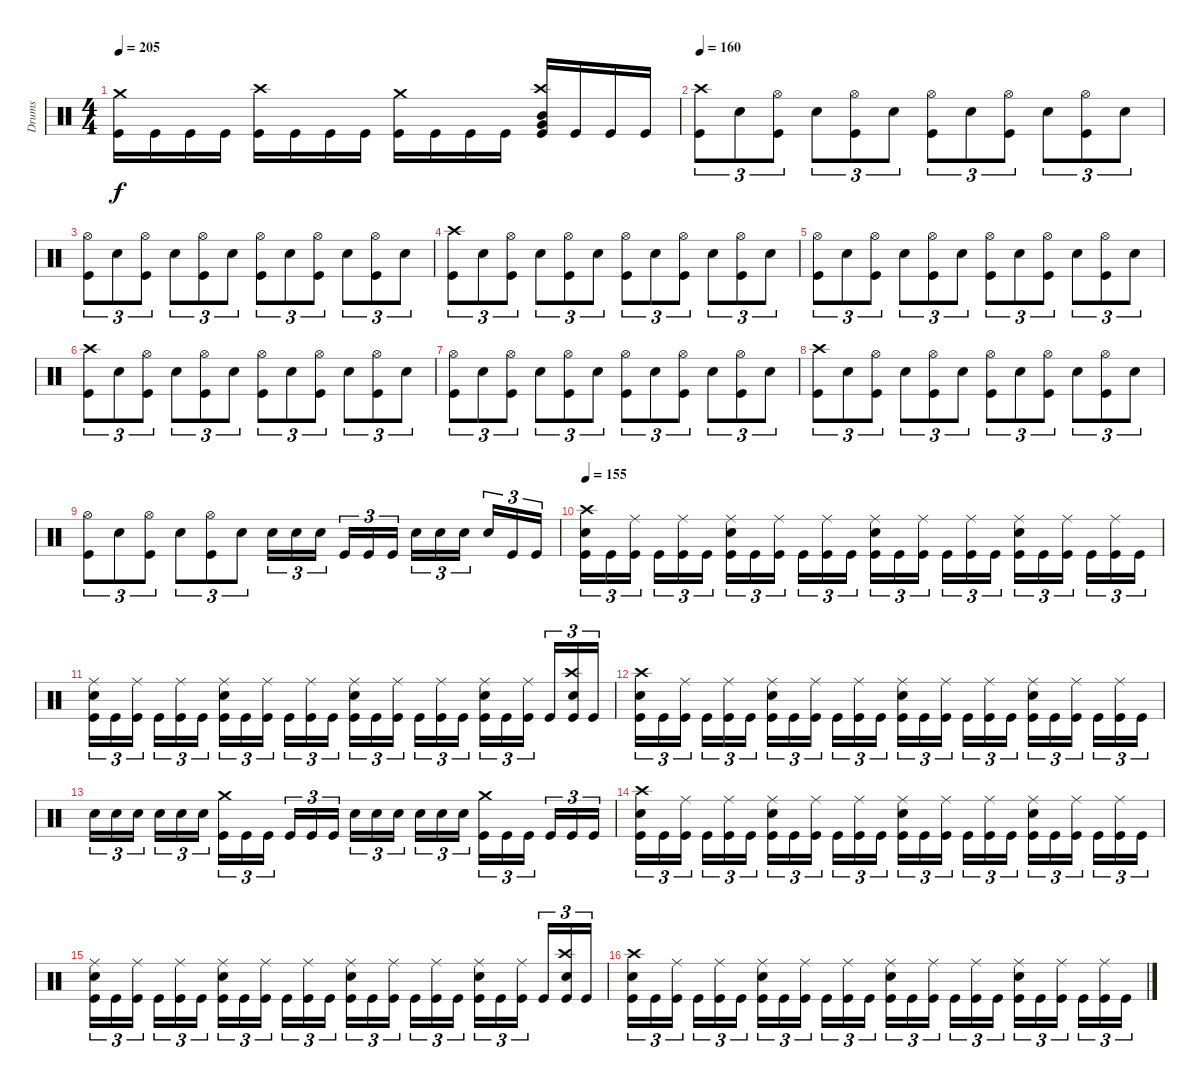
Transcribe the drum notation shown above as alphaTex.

\track ("Drums" "Drums") {instrument percussion}
\staff {score}
\articulation defaults
\ts (4 4)
\tempo 205
\clef neutral
\ks c
("Crash medium (hit)" "Kick (hit)").16{dy f} "Kick (hit)".16 "Kick (hit)".16 "Kick (hit)".16 ("Crash high (hit)" "Kick (hit)").16 "Kick (hit)".16 "Kick (hit)".16 "Kick (hit)".16 ("Crash medium (hit)" "Kick (hit)").16 "Kick (hit)".16 "Kick (hit)".16 "Kick (hit)".16 ("Crash high (hit)" "Mid Tom (hit)" "Very Low Tom (hit)" "Kick (hit)").16 "Kick (hit)".16 "Kick (hit)".16 "Kick (hit)".16 |
\tempo 160
("Crash high (hit)" "Kick (hit)").8{tu (3 2)} "Electric Snare (hit)".8{tu (3 2)} ("Hi-Hat (open)" "Kick (hit)").8{tu (3 2)} "Electric Snare (hit)".8{tu (3 2)} ("Hi-Hat (open)" "Kick (hit)").8{tu (3 2)} "Electric Snare (hit)".8{tu (3 2)} ("Hi-Hat (open)" "Kick (hit)").8{tu (3 2)} "Electric Snare (hit)".8{tu (3 2)} ("Hi-Hat (open)" "Kick (hit)").8{tu (3 2)} "Electric Snare (hit)".8{tu (3 2)} ("Hi-Hat (open)" "Kick (hit)").8{tu (3 2)} "Electric Snare (hit)".8{tu (3 2)} |
("Hi-Hat (open)" "Kick (hit)").8{tu (3 2)} "Electric Snare (hit)".8{tu (3 2)} ("Hi-Hat (open)" "Kick (hit)").8{tu (3 2)} "Electric Snare (hit)".8{tu (3 2)} ("Hi-Hat (open)" "Kick (hit)").8{tu (3 2)} "Electric Snare (hit)".8{tu (3 2)} ("Hi-Hat (open)" "Kick (hit)").8{tu (3 2)} "Electric Snare (hit)".8{tu (3 2)} ("Hi-Hat (open)" "Kick (hit)").8{tu (3 2)} "Electric Snare (hit)".8{tu (3 2)} ("Hi-Hat (open)" "Kick (hit)").8{tu (3 2)} "Electric Snare (hit)".8{tu (3 2)} |
("Crash high (hit)" "Kick (hit)").8{tu (3 2)} "Electric Snare (hit)".8{tu (3 2)} ("Hi-Hat (open)" "Kick (hit)").8{tu (3 2)} "Electric Snare (hit)".8{tu (3 2)} ("Hi-Hat (open)" "Kick (hit)").8{tu (3 2)} "Electric Snare (hit)".8{tu (3 2)} ("Hi-Hat (open)" "Kick (hit)").8{tu (3 2)} "Electric Snare (hit)".8{tu (3 2)} ("Hi-Hat (open)" "Kick (hit)").8{tu (3 2)} "Electric Snare (hit)".8{tu (3 2)} ("Hi-Hat (open)" "Kick (hit)").8{tu (3 2)} "Electric Snare (hit)".8{tu (3 2)} |
("Hi-Hat (open)" "Kick (hit)").8{tu (3 2)} "Electric Snare (hit)".8{tu (3 2)} ("Hi-Hat (open)" "Kick (hit)").8{tu (3 2)} "Electric Snare (hit)".8{tu (3 2)} ("Hi-Hat (open)" "Kick (hit)").8{tu (3 2)} "Electric Snare (hit)".8{tu (3 2)} ("Hi-Hat (open)" "Kick (hit)").8{tu (3 2)} "Electric Snare (hit)".8{tu (3 2)} ("Hi-Hat (open)" "Kick (hit)").8{tu (3 2)} "Electric Snare (hit)".8{tu (3 2)} ("Hi-Hat (open)" "Kick (hit)").8{tu (3 2)} "Electric Snare (hit)".8{tu (3 2)} |
("Crash high (hit)" "Kick (hit)").8{tu (3 2)} "Electric Snare (hit)".8{tu (3 2)} ("Hi-Hat (open)" "Kick (hit)").8{tu (3 2)} "Electric Snare (hit)".8{tu (3 2)} ("Hi-Hat (open)" "Kick (hit)").8{tu (3 2)} "Electric Snare (hit)".8{tu (3 2)} ("Hi-Hat (open)" "Kick (hit)").8{tu (3 2)} "Electric Snare (hit)".8{tu (3 2)} ("Hi-Hat (open)" "Kick (hit)").8{tu (3 2)} "Electric Snare (hit)".8{tu (3 2)} ("Hi-Hat (open)" "Kick (hit)").8{tu (3 2)} "Electric Snare (hit)".8{tu (3 2)} |
("Hi-Hat (open)" "Kick (hit)").8{tu (3 2)} "Electric Snare (hit)".8{tu (3 2)} ("Hi-Hat (open)" "Kick (hit)").8{tu (3 2)} "Electric Snare (hit)".8{tu (3 2)} ("Hi-Hat (open)" "Kick (hit)").8{tu (3 2)} "Electric Snare (hit)".8{tu (3 2)} ("Hi-Hat (open)" "Kick (hit)").8{tu (3 2)} "Electric Snare (hit)".8{tu (3 2)} ("Hi-Hat (open)" "Kick (hit)").8{tu (3 2)} "Electric Snare (hit)".8{tu (3 2)} ("Hi-Hat (open)" "Kick (hit)").8{tu (3 2)} "Electric Snare (hit)".8{tu (3 2)} |
("Crash high (hit)" "Kick (hit)").8{tu (3 2)} "Electric Snare (hit)".8{tu (3 2)} ("Hi-Hat (open)" "Kick (hit)").8{tu (3 2)} "Electric Snare (hit)".8{tu (3 2)} ("Hi-Hat (open)" "Kick (hit)").8{tu (3 2)} "Electric Snare (hit)".8{tu (3 2)} ("Hi-Hat (open)" "Kick (hit)").8{tu (3 2)} "Electric Snare (hit)".8{tu (3 2)} ("Hi-Hat (open)" "Kick (hit)").8{tu (3 2)} "Electric Snare (hit)".8{tu (3 2)} ("Hi-Hat (open)" "Kick (hit)").8{tu (3 2)} "Electric Snare (hit)".8{tu (3 2)} |
("Hi-Hat (open)" "Kick (hit)").8{tu (3 2)} "Electric Snare (hit)".8{tu (3 2)} ("Hi-Hat (open)" "Kick (hit)").8{tu (3 2)} "Electric Snare (hit)".8{tu (3 2)} ("Hi-Hat (open)" "Kick (hit)").8{tu (3 2)} "Electric Snare (hit)".8{tu (3 2)} "Electric Snare (hit)".16{tu (3 2)} "Electric Snare (hit)".16{tu (3 2)} "Electric Snare (hit)".16{tu (3 2)} "Kick (hit)".16{tu (3 2)} "Kick (hit)".16{tu (3 2)} "Kick (hit)".16{tu (3 2)} "Electric Snare (hit)".16{tu (3 2)} "Electric Snare (hit)".16{tu (3 2)} "Electric Snare (hit)".16{tu (3 2)} "Electric Snare (hit)".16{tu (3 2)} "Kick (hit)".16{tu (3 2)} "Kick (hit)".16{tu (3 2)} |
\tempo 155
("Crash high (hit)" "Electric Snare (hit)" "Kick (hit)").16{tu (3 2)} "Kick (hit)".16{tu (3 2)} ("Ride (middle)" "Kick (hit)").16{tu (3 2)} "Kick (hit)".16{tu (3 2)} ("Ride (middle)" "Kick (hit)").16{tu (3 2)} "Kick (hit)".16{tu (3 2)} ("Ride (middle)" "Electric Snare (hit)" "Kick (hit)").16{tu (3 2)} "Kick (hit)".16{tu (3 2)} ("Ride (middle)" "Kick (hit)").16{tu (3 2)} "Kick (hit)".16{tu (3 2)} ("Ride (middle)" "Kick (hit)").16{tu (3 2)} "Kick (hit)".16{tu (3 2)} ("Ride (middle)" "Electric Snare (hit)" "Kick (hit)").16{tu (3 2)} "Kick (hit)".16{tu (3 2)} ("Ride (middle)" "Kick (hit)").16{tu (3 2)} "Kick (hit)".16{tu (3 2)} ("Ride (middle)" "Kick (hit)").16{tu (3 2)} "Kick (hit)".16{tu (3 2)} ("Ride (middle)" "Electric Snare (hit)" "Kick (hit)").16{tu (3 2)} "Kick (hit)".16{tu (3 2)} ("Ride (middle)" "Kick (hit)").16{tu (3 2)} "Kick (hit)".16{tu (3 2)} ("Ride (middle)" "Kick (hit)").16{tu (3 2)} "Kick (hit)".16{tu (3 2)} |
("Ride (middle)" "Electric Snare (hit)" "Kick (hit)").16{tu (3 2)} "Kick (hit)".16{tu (3 2)} ("Ride (middle)" "Kick (hit)").16{tu (3 2)} "Kick (hit)".16{tu (3 2)} ("Ride (middle)" "Kick (hit)").16{tu (3 2)} "Kick (hit)".16{tu (3 2)} ("Ride (middle)" "Electric Snare (hit)" "Kick (hit)").16{tu (3 2)} "Kick (hit)".16{tu (3 2)} ("Ride (middle)" "Kick (hit)").16{tu (3 2)} "Kick (hit)".16{tu (3 2)} ("Ride (middle)" "Kick (hit)").16{tu (3 2)} "Kick (hit)".16{tu (3 2)} ("Ride (middle)" "Electric Snare (hit)" "Kick (hit)").16{tu (3 2)} "Kick (hit)".16{tu (3 2)} ("Ride (middle)" "Kick (hit)").16{tu (3 2)} "Kick (hit)".16{tu (3 2)} ("Ride (middle)" "Kick (hit)").16{tu (3 2)} "Kick (hit)".16{tu (3 2)} ("Ride (middle)" "Electric Snare (hit)" "Kick (hit)").16{tu (3 2)} "Kick (hit)".16{tu (3 2)} ("Ride (middle)" "Kick (hit)").16{tu (3 2)} "Kick (hit)".16{tu (3 2)} ("Crash high (hit)" "Electric Snare (hit)" "Kick (hit)").16{tu (3 2)} "Kick (hit)".16{tu (3 2)} |
("Crash high (hit)" "Electric Snare (hit)" "Kick (hit)").16{tu (3 2)} "Kick (hit)".16{tu (3 2)} ("Ride (middle)" "Kick (hit)").16{tu (3 2)} "Kick (hit)".16{tu (3 2)} ("Ride (middle)" "Kick (hit)").16{tu (3 2)} "Kick (hit)".16{tu (3 2)} ("Ride (middle)" "Electric Snare (hit)" "Kick (hit)").16{tu (3 2)} "Kick (hit)".16{tu (3 2)} ("Ride (middle)" "Kick (hit)").16{tu (3 2)} "Kick (hit)".16{tu (3 2)} ("Ride (middle)" "Kick (hit)").16{tu (3 2)} "Kick (hit)".16{tu (3 2)} ("Ride (middle)" "Electric Snare (hit)" "Kick (hit)").16{tu (3 2)} "Kick (hit)".16{tu (3 2)} ("Ride (middle)" "Kick (hit)").16{tu (3 2)} "Kick (hit)".16{tu (3 2)} ("Ride (middle)" "Kick (hit)").16{tu (3 2)} "Kick (hit)".16{tu (3 2)} ("Ride (middle)" "Electric Snare (hit)" "Kick (hit)").16{tu (3 2)} "Kick (hit)".16{tu (3 2)} ("Ride (middle)" "Kick (hit)").16{tu (3 2)} "Kick (hit)".16{tu (3 2)} ("Ride (middle)" "Kick (hit)").16{tu (3 2)} "Kick (hit)".16{tu (3 2)} |
"Electric Snare (hit)".16{tu (3 2)} "Electric Snare (hit)".16{tu (3 2)} "Electric Snare (hit)".16{tu (3 2)} "Electric Snare (hit)".16{tu (3 2)} "Electric Snare (hit)".16{tu (3 2)} "Electric Snare (hit)".16{tu (3 2)} ("Crash medium (hit)" "Kick (hit)").16{tu (3 2)} "Kick (hit)".16{tu (3 2)} "Kick (hit)".16{tu (3 2)} "Kick (hit)".16{tu (3 2)} "Kick (hit)".16{tu (3 2)} "Kick (hit)".16{tu (3 2)} "Electric Snare (hit)".16{tu (3 2)} "Electric Snare (hit)".16{tu (3 2)} "Electric Snare (hit)".16{tu (3 2)} "Electric Snare (hit)".16{tu (3 2)} "Electric Snare (hit)".16{tu (3 2)} "Electric Snare (hit)".16{tu (3 2)} ("Crash medium (hit)" "Kick (hit)").16{tu (3 2)} "Kick (hit)".16{tu (3 2)} "Kick (hit)".16{tu (3 2)} "Kick (hit)".16{tu (3 2)} "Kick (hit)".16{tu (3 2)} "Kick (hit)".16{tu (3 2)} |
("Crash high (hit)" "Electric Snare (hit)" "Kick (hit)").16{tu (3 2)} "Kick (hit)".16{tu (3 2)} ("Ride (middle)" "Kick (hit)").16{tu (3 2)} "Kick (hit)".16{tu (3 2)} ("Ride (middle)" "Kick (hit)").16{tu (3 2)} "Kick (hit)".16{tu (3 2)} ("Ride (middle)" "Electric Snare (hit)" "Kick (hit)").16{tu (3 2)} "Kick (hit)".16{tu (3 2)} ("Ride (middle)" "Kick (hit)").16{tu (3 2)} "Kick (hit)".16{tu (3 2)} ("Ride (middle)" "Kick (hit)").16{tu (3 2)} "Kick (hit)".16{tu (3 2)} ("Ride (middle)" "Electric Snare (hit)" "Kick (hit)").16{tu (3 2)} "Kick (hit)".16{tu (3 2)} ("Ride (middle)" "Kick (hit)").16{tu (3 2)} "Kick (hit)".16{tu (3 2)} ("Ride (middle)" "Kick (hit)").16{tu (3 2)} "Kick (hit)".16{tu (3 2)} ("Ride (middle)" "Electric Snare (hit)" "Kick (hit)").16{tu (3 2)} "Kick (hit)".16{tu (3 2)} ("Ride (middle)" "Kick (hit)").16{tu (3 2)} "Kick (hit)".16{tu (3 2)} ("Ride (middle)" "Kick (hit)").16{tu (3 2)} "Kick (hit)".16{tu (3 2)} |
("Ride (middle)" "Electric Snare (hit)" "Kick (hit)").16{tu (3 2)} "Kick (hit)".16{tu (3 2)} ("Ride (middle)" "Kick (hit)").16{tu (3 2)} "Kick (hit)".16{tu (3 2)} ("Ride (middle)" "Kick (hit)").16{tu (3 2)} "Kick (hit)".16{tu (3 2)} ("Ride (middle)" "Electric Snare (hit)" "Kick (hit)").16{tu (3 2)} "Kick (hit)".16{tu (3 2)} ("Ride (middle)" "Kick (hit)").16{tu (3 2)} "Kick (hit)".16{tu (3 2)} ("Ride (middle)" "Kick (hit)").16{tu (3 2)} "Kick (hit)".16{tu (3 2)} ("Ride (middle)" "Electric Snare (hit)" "Kick (hit)").16{tu (3 2)} "Kick (hit)".16{tu (3 2)} ("Ride (middle)" "Kick (hit)").16{tu (3 2)} "Kick (hit)".16{tu (3 2)} ("Ride (middle)" "Kick (hit)").16{tu (3 2)} "Kick (hit)".16{tu (3 2)} ("Ride (middle)" "Electric Snare (hit)" "Kick (hit)").16{tu (3 2)} "Kick (hit)".16{tu (3 2)} ("Ride (middle)" "Kick (hit)").16{tu (3 2)} "Kick (hit)".16{tu (3 2)} ("Crash high (hit)" "Electric Snare (hit)" "Kick (hit)").16{tu (3 2)} "Kick (hit)".16{tu (3 2)} |
("Crash high (hit)" "Electric Snare (hit)" "Kick (hit)").16{tu (3 2)} "Kick (hit)".16{tu (3 2)} ("Ride (middle)" "Kick (hit)").16{tu (3 2)} "Kick (hit)".16{tu (3 2)} ("Ride (middle)" "Kick (hit)").16{tu (3 2)} "Kick (hit)".16{tu (3 2)} ("Ride (middle)" "Electric Snare (hit)" "Kick (hit)").16{tu (3 2)} "Kick (hit)".16{tu (3 2)} ("Ride (middle)" "Kick (hit)").16{tu (3 2)} "Kick (hit)".16{tu (3 2)} ("Ride (middle)" "Kick (hit)").16{tu (3 2)} "Kick (hit)".16{tu (3 2)} ("Ride (middle)" "Electric Snare (hit)" "Kick (hit)").16{tu (3 2)} "Kick (hit)".16{tu (3 2)} ("Ride (middle)" "Kick (hit)").16{tu (3 2)} "Kick (hit)".16{tu (3 2)} ("Ride (middle)" "Kick (hit)").16{tu (3 2)} "Kick (hit)".16{tu (3 2)} ("Ride (middle)" "Electric Snare (hit)" "Kick (hit)").16{tu (3 2)} "Kick (hit)".16{tu (3 2)} ("Ride (middle)" "Kick (hit)").16{tu (3 2)} "Kick (hit)".16{tu (3 2)} ("Ride (middle)" "Kick (hit)").16{tu (3 2)} "Kick (hit)".16{tu (3 2)}
